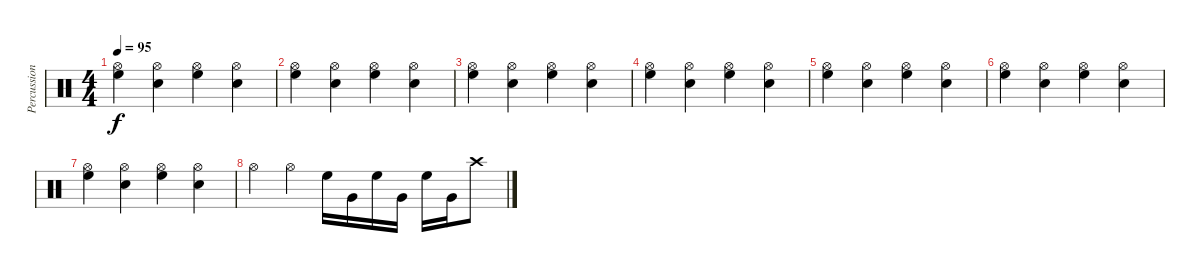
\track ("Percussion" "Percussion") {instrument percussion}
\staff {score}
\articulation defaults
\ts (4 4)
\tempo 95
\clef neutral
\ks c
("High Floor Tom (hit)" "Hi-Hat (open)").4{dy f} ("Snare (hit) 2" "Hi-Hat (open)").4 ("High Floor Tom (hit)" "Hi-Hat (open)").4 ("Snare (hit) 2" "Hi-Hat (open)").4 |
("High Floor Tom (hit)" "Hi-Hat (open)").4 ("Snare (hit) 2" "Hi-Hat (open)").4 ("High Floor Tom (hit)" "Hi-Hat (open)").4 ("Snare (hit) 2" "Hi-Hat (open)").4 |
("High Floor Tom (hit)" "Hi-Hat (open)").4 ("Snare (hit) 2" "Hi-Hat (open)").4 ("High Floor Tom (hit)" "Hi-Hat (open)").4 ("Snare (hit) 2" "Hi-Hat (open)").4 |
("High Floor Tom (hit)" "Hi-Hat (open)").4 ("Snare (hit) 2" "Hi-Hat (open)").4 ("High Floor Tom (hit)" "Hi-Hat (open)").4 ("Snare (hit) 2" "Hi-Hat (open)").4 |
("High Floor Tom (hit)" "Hi-Hat (open)").4 ("Snare (hit) 2" "Hi-Hat (open)").4 ("High Floor Tom (hit)" "Hi-Hat (open)").4 ("Snare (hit) 2" "Hi-Hat (open)").4 |
("High Floor Tom (hit)" "Hi-Hat (open)").4 ("Snare (hit) 2" "Hi-Hat (open)").4 ("High Floor Tom (hit)" "Hi-Hat (open)").4 ("Snare (hit) 2" "Hi-Hat (open)").4 |
("High Floor Tom (hit)" "Hi-Hat (open)").4 ("Snare (hit) 2" "Hi-Hat (open)").4 ("High Floor Tom (hit)" "Hi-Hat (open)").4 ("Snare (hit) 2" "Hi-Hat (open)").4 |
"Hi-Hat (open)".4 "Hi-Hat (open)".4 "High Floor Tom (hit)".16 "Very Low Tom (hit)".16 "High Floor Tom (hit)".16 "Very Low Tom (hit)".16 "High Floor Tom (hit)".16 "Very Low Tom (hit)".16 "Crash high (hit)".8
